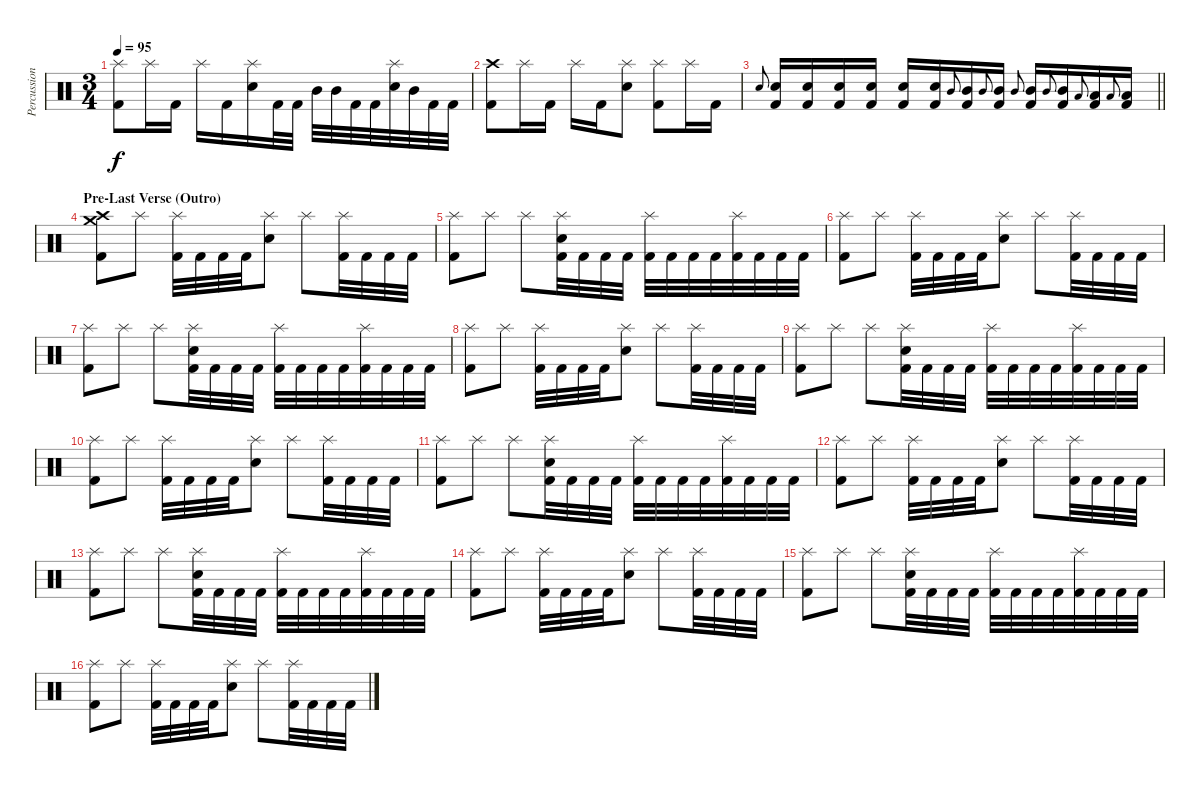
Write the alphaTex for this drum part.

\track ("Percussion Mike" "Percussion") {instrument percussion}
\staff {score}
\articulation defaults
\ts (3 4)
\tempo 95
\clef neutral
\ks c
("Splash (hit)" "Kick (hit) 2").8{dy f} "Splash (hit)".16 "Kick (hit) 2".16 "Splash (hit)".16 "Kick (hit) 2".16 ("Splash (hit)" "Snare (hit) 2").16 "Kick (hit) 2".32 "Kick (hit) 2".32 "Mid Tom (hit)".32 "Mid Tom (hit)".32 "Kick (hit) 2".32 "Kick (hit) 2".32 ("Splash (hit)" "Snare (hit) 2").32 "Mid Tom (hit)".32 "Kick (hit) 2".32 "Kick (hit) 2".32 |
("Crash high (hit)" "Kick (hit) 2").8 "Splash (hit)".16 "Kick (hit) 2".16 "Splash (hit)".16 "Kick (hit) 2".16 ("Splash (hit)" "Snare (hit) 2").8 ("Splash (hit)" "Kick (hit) 2").8 "Splash (hit)".16 "Kick (hit) 2".16 |
\barLineRight lightlight "Snare (hit) 2".8{gr onbeat}
("Snare (hit) 2" "Kick (hit) 2").16 ("Snare (hit) 2" "Kick (hit) 2").16 ("Snare (hit) 2" "Kick (hit) 2").16 ("Snare (hit) 2" "Kick (hit) 2").16 ("Snare (hit) 2" "Kick (hit) 2").16 ("Snare (hit) 2" "Kick (hit) 2").16 "Mid Tom (hit)".8{gr onbeat} ("Mid Tom (hit)" "Kick (hit) 2").16 "Mid Tom (hit)".8{gr onbeat} ("Mid Tom (hit)" "Kick (hit) 2").16 "Mid Tom (hit)".8{gr onbeat} ("Mid Tom (hit)" "Kick (hit) 2").16 "Mid Tom (hit)".8{gr onbeat} ("Mid Tom (hit)" "Kick (hit) 2").16 "Low Floor Tom (hit)".8{gr onbeat} ("Low Floor Tom (hit)" "Kick (hit) 2").16 "Low Floor Tom (hit)".8{gr onbeat} ("Low Floor Tom (hit)" "Kick (hit) 2").16 |
\section ("" "Pre-Last Verse (Outro)")
("Crash medium (hit)" "Crash high (hit)" "Kick (hit) 2").8 "Splash (hit)".8 ("Splash (hit)" "Kick (hit) 2").32 "Kick (hit) 2".32 "Kick (hit) 2".32 "Kick (hit) 2".32 ("Splash (hit)" "Snare (hit) 2").8 "Splash (hit)".8 ("Splash (hit)" "Kick (hit) 2").32 "Kick (hit) 2".32 "Kick (hit) 2".32 "Kick (hit) 2".32 |
("Splash (hit)" "Kick (hit) 2").8 "Splash (hit)".8 "Splash (hit)".8 ("Splash (hit)" "Snare (hit) 2" "Kick (hit) 2").32 "Kick (hit) 2".32 "Kick (hit) 2".32 "Kick (hit) 2".32 ("Splash (hit)" "Kick (hit) 2").32 "Kick (hit) 2".32 "Kick (hit) 2".32 "Kick (hit) 2".32 ("Splash (hit)" "Kick (hit) 2").32 "Kick (hit) 2".32 "Kick (hit) 2".32 "Kick (hit) 2".32 |
("Splash (hit)" "Kick (hit) 2").8 "Splash (hit)".8 ("Splash (hit)" "Kick (hit) 2").32 "Kick (hit) 2".32 "Kick (hit) 2".32 "Kick (hit) 2".32 ("Splash (hit)" "Snare (hit) 2").8 "Splash (hit)".8 ("Splash (hit)" "Kick (hit) 2").32 "Kick (hit) 2".32 "Kick (hit) 2".32 "Kick (hit) 2".32 |
("Splash (hit)" "Kick (hit) 2").8 "Splash (hit)".8 "Splash (hit)".8 ("Splash (hit)" "Snare (hit) 2" "Kick (hit) 2").32 "Kick (hit) 2".32 "Kick (hit) 2".32 "Kick (hit) 2".32 ("Splash (hit)" "Kick (hit) 2").32 "Kick (hit) 2".32 "Kick (hit) 2".32 "Kick (hit) 2".32 ("Splash (hit)" "Kick (hit) 2").32 "Kick (hit) 2".32 "Kick (hit) 2".32 "Kick (hit) 2".32 |
("Splash (hit)" "Kick (hit) 2").8 "Splash (hit)".8 ("Splash (hit)" "Kick (hit) 2").32 "Kick (hit) 2".32 "Kick (hit) 2".32 "Kick (hit) 2".32 ("Splash (hit)" "Snare (hit) 2").8 "Splash (hit)".8 ("Splash (hit)" "Kick (hit) 2").32 "Kick (hit) 2".32 "Kick (hit) 2".32 "Kick (hit) 2".32 |
("Splash (hit)" "Kick (hit) 2").8 "Splash (hit)".8 "Splash (hit)".8 ("Splash (hit)" "Snare (hit) 2" "Kick (hit) 2").32 "Kick (hit) 2".32 "Kick (hit) 2".32 "Kick (hit) 2".32 ("Splash (hit)" "Kick (hit) 2").32 "Kick (hit) 2".32 "Kick (hit) 2".32 "Kick (hit) 2".32 ("Splash (hit)" "Kick (hit) 2").32 "Kick (hit) 2".32 "Kick (hit) 2".32 "Kick (hit) 2".32 |
("Splash (hit)" "Kick (hit) 2").8 "Splash (hit)".8 ("Splash (hit)" "Kick (hit) 2").32 "Kick (hit) 2".32 "Kick (hit) 2".32 "Kick (hit) 2".32 ("Splash (hit)" "Snare (hit) 2").8 "Splash (hit)".8 ("Splash (hit)" "Kick (hit) 2").32 "Kick (hit) 2".32 "Kick (hit) 2".32 "Kick (hit) 2".32 |
("Splash (hit)" "Kick (hit) 2").8 "Splash (hit)".8 "Splash (hit)".8 ("Splash (hit)" "Snare (hit) 2" "Kick (hit) 2").32 "Kick (hit) 2".32 "Kick (hit) 2".32 "Kick (hit) 2".32 ("Splash (hit)" "Kick (hit) 2").32 "Kick (hit) 2".32 "Kick (hit) 2".32 "Kick (hit) 2".32 ("Splash (hit)" "Kick (hit) 2").32 "Kick (hit) 2".32 "Kick (hit) 2".32 "Kick (hit) 2".32 |
("Splash (hit)" "Kick (hit) 2").8 "Splash (hit)".8 ("Splash (hit)" "Kick (hit) 2").32 "Kick (hit) 2".32 "Kick (hit) 2".32 "Kick (hit) 2".32 ("Splash (hit)" "Snare (hit) 2").8 "Splash (hit)".8 ("Splash (hit)" "Kick (hit) 2").32 "Kick (hit) 2".32 "Kick (hit) 2".32 "Kick (hit) 2".32 |
("Splash (hit)" "Kick (hit) 2").8 "Splash (hit)".8 "Splash (hit)".8 ("Splash (hit)" "Snare (hit) 2" "Kick (hit) 2").32 "Kick (hit) 2".32 "Kick (hit) 2".32 "Kick (hit) 2".32 ("Splash (hit)" "Kick (hit) 2").32 "Kick (hit) 2".32 "Kick (hit) 2".32 "Kick (hit) 2".32 ("Splash (hit)" "Kick (hit) 2").32 "Kick (hit) 2".32 "Kick (hit) 2".32 "Kick (hit) 2".32 |
("Splash (hit)" "Kick (hit) 2").8 "Splash (hit)".8 ("Splash (hit)" "Kick (hit) 2").32 "Kick (hit) 2".32 "Kick (hit) 2".32 "Kick (hit) 2".32 ("Splash (hit)" "Snare (hit) 2").8 "Splash (hit)".8 ("Splash (hit)" "Kick (hit) 2").32 "Kick (hit) 2".32 "Kick (hit) 2".32 "Kick (hit) 2".32 |
("Splash (hit)" "Kick (hit) 2").8 "Splash (hit)".8 "Splash (hit)".8 ("Splash (hit)" "Snare (hit) 2" "Kick (hit) 2").32 "Kick (hit) 2".32 "Kick (hit) 2".32 "Kick (hit) 2".32 ("Splash (hit)" "Kick (hit) 2").32 "Kick (hit) 2".32 "Kick (hit) 2".32 "Kick (hit) 2".32 ("Splash (hit)" "Kick (hit) 2").32 "Kick (hit) 2".32 "Kick (hit) 2".32 "Kick (hit) 2".32 |
("Splash (hit)" "Kick (hit) 2").8 "Splash (hit)".8 ("Splash (hit)" "Kick (hit) 2").32 "Kick (hit) 2".32 "Kick (hit) 2".32 "Kick (hit) 2".32 ("Splash (hit)" "Snare (hit) 2").8 "Splash (hit)".8 ("Splash (hit)" "Kick (hit) 2").32 "Kick (hit) 2".32 "Kick (hit) 2".32 "Kick (hit) 2".32
